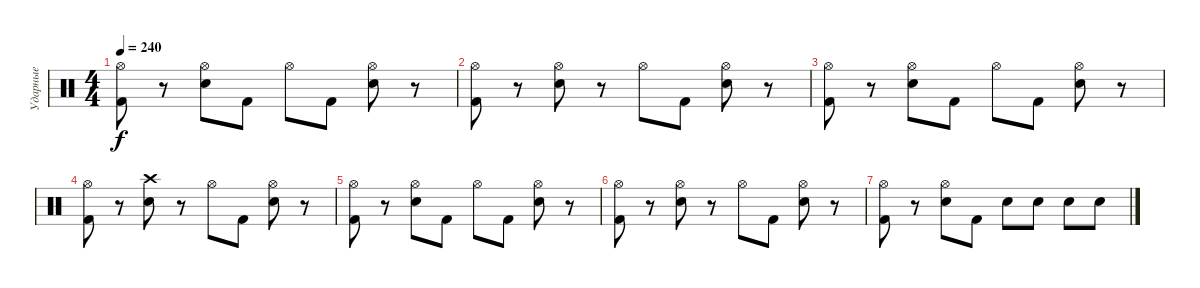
\track ("Ударные" "Ударные") {instrument percussion}
\staff {score}
\articulation defaults
\ts (4 4)
\tempo 240
\clef neutral
\ks c
("Hi-Hat (open)" "Kick (hit) 2").8{dy f} r.8 ("Hi-Hat (open)" "Electric Snare (hit)").8 "Kick (hit) 2".8 "Hi-Hat (open)".8 "Kick (hit) 2".8 ("Hi-Hat (open)" "Electric Snare (hit)").8 r.8 |
("Hi-Hat (open)" "Kick (hit) 2").8 r.8 ("Hi-Hat (open)" "Electric Snare (hit)").8 r.8 "Hi-Hat (open)".8 "Kick (hit) 2".8 ("Hi-Hat (open)" "Electric Snare (hit)").8 r.8 |
("Hi-Hat (open)" "Kick (hit) 2").8 r.8 ("Hi-Hat (open)" "Electric Snare (hit)").8 "Kick (hit) 2".8 "Hi-Hat (open)".8 "Kick (hit) 2".8 ("Hi-Hat (open)" "Electric Snare (hit)").8 r.8 |
("Hi-Hat (open)" "Kick (hit) 2").8 r.8 ("Crash high (hit)" "Electric Snare (hit)").8 r.8 "Hi-Hat (open)".8 "Kick (hit) 2".8 ("Hi-Hat (open)" "Electric Snare (hit)").8 r.8 |
("Hi-Hat (open)" "Kick (hit) 2").8 r.8 ("Hi-Hat (open)" "Electric Snare (hit)").8 "Kick (hit) 2".8 "Hi-Hat (open)".8 "Kick (hit) 2".8 ("Hi-Hat (open)" "Electric Snare (hit)").8 r.8 |
("Hi-Hat (open)" "Kick (hit) 2").8 r.8 ("Hi-Hat (open)" "Electric Snare (hit)").8 r.8 "Hi-Hat (open)".8 "Kick (hit) 2".8 ("Hi-Hat (open)" "Electric Snare (hit)").8 r.8 |
("Hi-Hat (open)" "Kick (hit) 2").8 r.8 ("Hi-Hat (open)" "Electric Snare (hit)").8 "Kick (hit) 2".8 "Electric Snare (hit)".8 "Electric Snare (hit)".8 "Electric Snare (hit)".8 "Electric Snare (hit)".8
